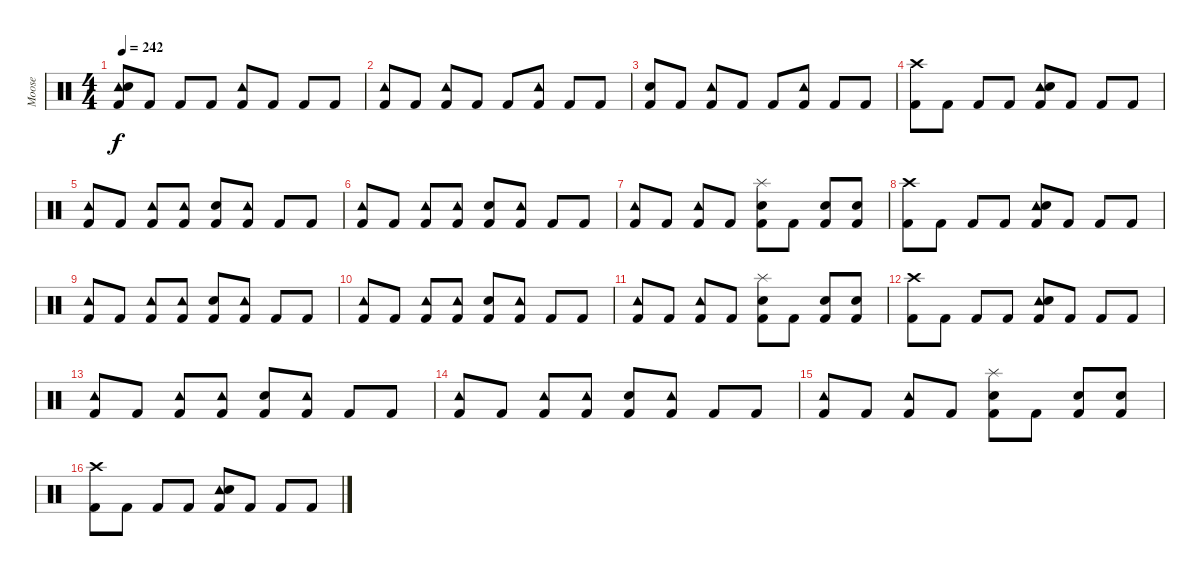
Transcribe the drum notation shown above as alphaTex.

\track ("Moose" "Moose") {instrument percussion}
\staff {score}
\articulation defaults
\ts (4 4)
\tempo 242
\clef neutral
\ks c
("Tambourine (hit)" "Electric Snare (hit)" "Kick (hit) 2").8{dy f} "Kick (hit) 2".8 "Kick (hit) 2".8 "Kick (hit) 2".8 ("Tambourine (hit)" "Kick (hit) 2").8 "Kick (hit) 2".8 "Kick (hit) 2".8 "Kick (hit) 2".8 |
("Tambourine (hit)" "Kick (hit) 2").8 "Kick (hit) 2".8 ("Tambourine (hit)" "Kick (hit) 2").8 "Kick (hit) 2".8 "Kick (hit) 2".8 ("Tambourine (hit)" "Kick (hit) 2").8 "Kick (hit) 2".8 "Kick (hit) 2".8 |
("Electric Snare (hit)" "Kick (hit) 2").8 "Kick (hit) 2".8 ("Tambourine (hit)" "Kick (hit) 2").8 "Kick (hit) 2".8 "Kick (hit) 2".8 ("Tambourine (hit)" "Kick (hit) 2").8 "Kick (hit) 2".8 "Kick (hit) 2".8 |
("Crash high (hit)" "Kick (hit) 2").8 "Kick (hit) 2".8 "Kick (hit) 2".8 "Kick (hit) 2".8 ("Tambourine (hit)" "Electric Snare (hit)" "Kick (hit) 2").8 "Kick (hit) 2".8 "Kick (hit) 2".8 "Kick (hit) 2".8 |
("Tambourine (hit)" "Kick (hit) 2").8 "Kick (hit) 2".8 ("Tambourine (hit)" "Kick (hit) 2").8 ("Tambourine (hit)" "Kick (hit) 2").8 ("Electric Snare (hit)" "Kick (hit) 2").8 ("Tambourine (hit)" "Kick (hit) 2").8 "Kick (hit) 2".8 "Kick (hit) 2".8 |
("Tambourine (hit)" "Kick (hit) 2").8 "Kick (hit) 2".8 ("Tambourine (hit)" "Kick (hit) 2").8 ("Tambourine (hit)" "Kick (hit) 2").8 ("Electric Snare (hit)" "Kick (hit) 2").8 ("Tambourine (hit)" "Kick (hit) 2").8 "Kick (hit) 2".8 "Kick (hit) 2".8 |
("Tambourine (hit)" "Kick (hit) 2").8 "Kick (hit) 2".8 ("Tambourine (hit)" "Kick (hit) 2").8 "Kick (hit) 2".8 ("Splash (hit)" "Electric Snare (hit)" "Kick (hit) 2").8 "Kick (hit) 2".8 ("Electric Snare (hit)" "Kick (hit) 2").8 ("Electric Snare (hit)" "Kick (hit) 2").8 |
("Crash high (hit)" "Kick (hit) 2").8 "Kick (hit) 2".8 "Kick (hit) 2".8 "Kick (hit) 2".8 ("Tambourine (hit)" "Electric Snare (hit)" "Kick (hit) 2").8 "Kick (hit) 2".8 "Kick (hit) 2".8 "Kick (hit) 2".8 |
("Tambourine (hit)" "Kick (hit) 2").8 "Kick (hit) 2".8 ("Tambourine (hit)" "Kick (hit) 2").8 ("Tambourine (hit)" "Kick (hit) 2").8 ("Electric Snare (hit)" "Kick (hit) 2").8 ("Tambourine (hit)" "Kick (hit) 2").8 "Kick (hit) 2".8 "Kick (hit) 2".8 |
("Tambourine (hit)" "Kick (hit) 2").8 "Kick (hit) 2".8 ("Tambourine (hit)" "Kick (hit) 2").8 ("Tambourine (hit)" "Kick (hit) 2").8 ("Electric Snare (hit)" "Kick (hit) 2").8 ("Tambourine (hit)" "Kick (hit) 2").8 "Kick (hit) 2".8 "Kick (hit) 2".8 |
("Tambourine (hit)" "Kick (hit) 2").8 "Kick (hit) 2".8 ("Tambourine (hit)" "Kick (hit) 2").8 "Kick (hit) 2".8 ("Splash (hit)" "Electric Snare (hit)" "Kick (hit) 2").8 "Kick (hit) 2".8 ("Electric Snare (hit)" "Kick (hit) 2").8 ("Electric Snare (hit)" "Kick (hit) 2").8 |
("Crash high (hit)" "Kick (hit) 2").8 "Kick (hit) 2".8 "Kick (hit) 2".8 "Kick (hit) 2".8 ("Tambourine (hit)" "Electric Snare (hit)" "Kick (hit) 2").8 "Kick (hit) 2".8 "Kick (hit) 2".8 "Kick (hit) 2".8 |
("Tambourine (hit)" "Kick (hit) 2").8 "Kick (hit) 2".8 ("Tambourine (hit)" "Kick (hit) 2").8 ("Tambourine (hit)" "Kick (hit) 2").8 ("Electric Snare (hit)" "Kick (hit) 2").8 ("Tambourine (hit)" "Kick (hit) 2").8 "Kick (hit) 2".8 "Kick (hit) 2".8 |
("Tambourine (hit)" "Kick (hit) 2").8 "Kick (hit) 2".8 ("Tambourine (hit)" "Kick (hit) 2").8 ("Tambourine (hit)" "Kick (hit) 2").8 ("Electric Snare (hit)" "Kick (hit) 2").8 ("Tambourine (hit)" "Kick (hit) 2").8 "Kick (hit) 2".8 "Kick (hit) 2".8 |
("Tambourine (hit)" "Kick (hit) 2").8 "Kick (hit) 2".8 ("Tambourine (hit)" "Kick (hit) 2").8 "Kick (hit) 2".8 ("Splash (hit)" "Electric Snare (hit)" "Kick (hit) 2").8 "Kick (hit) 2".8 ("Electric Snare (hit)" "Kick (hit) 2").8 ("Electric Snare (hit)" "Kick (hit) 2").8 |
("Crash high (hit)" "Kick (hit) 2").8 "Kick (hit) 2".8 "Kick (hit) 2".8 "Kick (hit) 2".8 ("Tambourine (hit)" "Electric Snare (hit)" "Kick (hit) 2").8 "Kick (hit) 2".8 "Kick (hit) 2".8 "Kick (hit) 2".8
